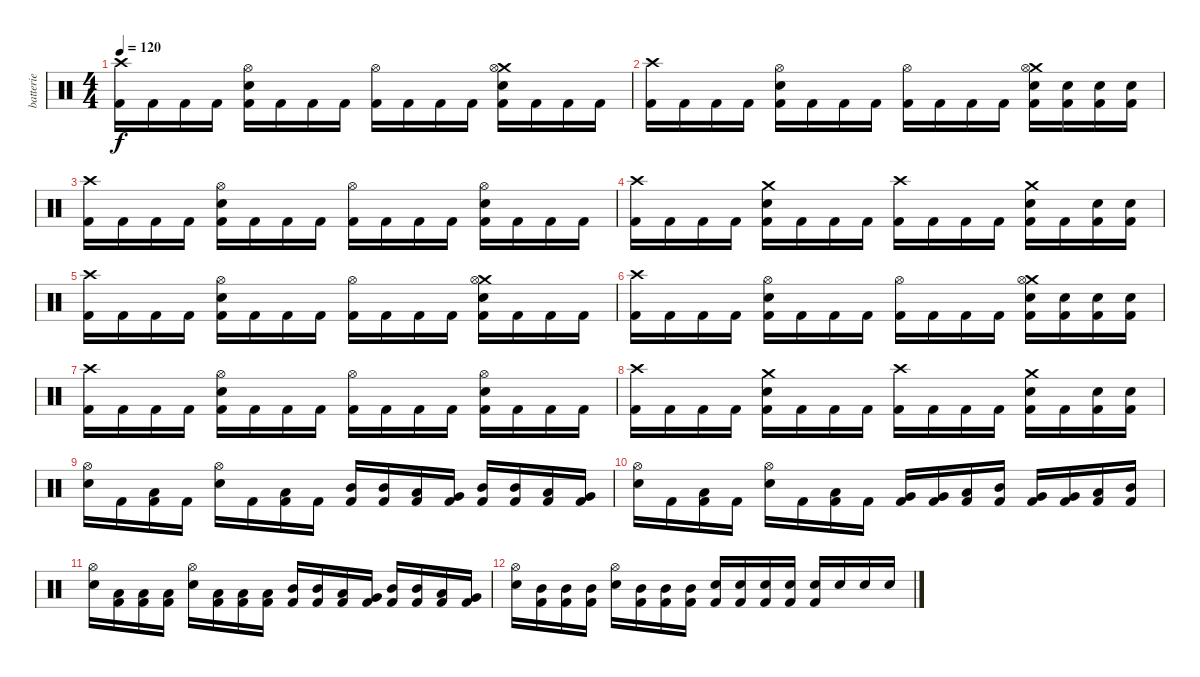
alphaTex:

\track ("batterie" "batterie") {instrument percussion}
\staff {score}
\articulation defaults
\ts (4 4)
\tempo 120
\clef neutral
\ks c
("Crash high (hit)" "Kick (hit) 2").16{dy f} "Kick (hit) 2".16 "Kick (hit) 2".16 "Kick (hit) 2".16 ("Snare (hit) 2" "Kick (hit) 2" "Hi-Hat (open)").16 "Kick (hit) 2".16 "Kick (hit) 2".16 "Kick (hit) 2".16 ("Kick (hit) 2" "Hi-Hat (open)").16 "Kick (hit) 2".16 "Kick (hit) 2".16 "Kick (hit) 2".16 ("Crash medium (hit)" "Snare (hit) 2" "Kick (hit) 2" "Hi-Hat (open)").16 "Kick (hit) 2".16 "Kick (hit) 2".16 "Kick (hit) 2".16 |
("Crash high (hit)" "Kick (hit) 2").16 "Kick (hit) 2".16 "Kick (hit) 2".16 "Kick (hit) 2".16 ("Snare (hit) 2" "Kick (hit) 2" "Hi-Hat (open)").16 "Kick (hit) 2".16 "Kick (hit) 2".16 "Kick (hit) 2".16 ("Kick (hit) 2" "Hi-Hat (open)").16 "Kick (hit) 2".16 "Kick (hit) 2".16 "Kick (hit) 2".16 ("Crash medium (hit)" "Snare (hit) 2" "Kick (hit) 2" "Hi-Hat (open)").16 ("Snare (hit) 2" "Kick (hit) 2").16 ("Snare (hit) 2" "Kick (hit) 2").16 ("Snare (hit) 2" "Kick (hit) 2").16 |
("Crash high (hit)" "Kick (hit) 2").16 "Kick (hit) 2".16 "Kick (hit) 2".16 "Kick (hit) 2".16 ("Snare (hit) 2" "Kick (hit) 2" "Hi-Hat (open)").16 "Kick (hit) 2".16 "Kick (hit) 2".16 "Kick (hit) 2".16 ("Kick (hit) 2" "Hi-Hat (open)").16 "Kick (hit) 2".16 "Kick (hit) 2".16 "Kick (hit) 2".16 ("Snare (hit) 2" "Kick (hit) 2" "Hi-Hat (open)").16 "Kick (hit) 2".16 "Kick (hit) 2".16 "Kick (hit) 2".16 |
("Crash high (hit)" "Kick (hit) 2").16 "Kick (hit) 2".16 "Kick (hit) 2".16 "Kick (hit) 2".16 ("Crash medium (hit)" "Snare (hit) 2" "Kick (hit) 2").16 "Kick (hit) 2".16 "Kick (hit) 2".16 "Kick (hit) 2".16 ("Crash high (hit)" "Kick (hit) 2").16 "Kick (hit) 2".16 "Kick (hit) 2".16 "Kick (hit) 2".16 ("Crash medium (hit)" "Snare (hit) 2" "Kick (hit) 2").16 "Kick (hit) 2".16 ("Snare (hit) 2" "Kick (hit) 2").16 ("Snare (hit) 2" "Kick (hit) 2").16 |
("Crash high (hit)" "Kick (hit) 2").16 "Kick (hit) 2".16 "Kick (hit) 2".16 "Kick (hit) 2".16 ("Snare (hit) 2" "Kick (hit) 2" "Hi-Hat (open)").16 "Kick (hit) 2".16 "Kick (hit) 2".16 "Kick (hit) 2".16 ("Kick (hit) 2" "Hi-Hat (open)").16 "Kick (hit) 2".16 "Kick (hit) 2".16 "Kick (hit) 2".16 ("Crash medium (hit)" "Snare (hit) 2" "Kick (hit) 2" "Hi-Hat (open)").16 "Kick (hit) 2".16 "Kick (hit) 2".16 "Kick (hit) 2".16 |
("Crash high (hit)" "Kick (hit) 2").16 "Kick (hit) 2".16 "Kick (hit) 2".16 "Kick (hit) 2".16 ("Snare (hit) 2" "Kick (hit) 2" "Hi-Hat (open)").16 "Kick (hit) 2".16 "Kick (hit) 2".16 "Kick (hit) 2".16 ("Kick (hit) 2" "Hi-Hat (open)").16 "Kick (hit) 2".16 "Kick (hit) 2".16 "Kick (hit) 2".16 ("Crash medium (hit)" "Snare (hit) 2" "Kick (hit) 2" "Hi-Hat (open)").16 ("Snare (hit) 2" "Kick (hit) 2").16 ("Snare (hit) 2" "Kick (hit) 2").16 ("Snare (hit) 2" "Kick (hit) 2").16 |
("Crash high (hit)" "Kick (hit) 2").16 "Kick (hit) 2".16 "Kick (hit) 2".16 "Kick (hit) 2".16 ("Snare (hit) 2" "Kick (hit) 2" "Hi-Hat (open)").16 "Kick (hit) 2".16 "Kick (hit) 2".16 "Kick (hit) 2".16 ("Kick (hit) 2" "Hi-Hat (open)").16 "Kick (hit) 2".16 "Kick (hit) 2".16 "Kick (hit) 2".16 ("Snare (hit) 2" "Kick (hit) 2" "Hi-Hat (open)").16 "Kick (hit) 2".16 "Kick (hit) 2".16 "Kick (hit) 2".16 |
("Crash high (hit)" "Kick (hit) 2").16 "Kick (hit) 2".16 "Kick (hit) 2".16 "Kick (hit) 2".16 ("Crash medium (hit)" "Snare (hit) 2" "Kick (hit) 2").16 "Kick (hit) 2".16 "Kick (hit) 2".16 "Kick (hit) 2".16 ("Crash high (hit)" "Kick (hit) 2").16 "Kick (hit) 2".16 "Kick (hit) 2".16 "Kick (hit) 2".16 ("Crash medium (hit)" "Snare (hit) 2" "Kick (hit) 2").16 "Kick (hit) 2".16 ("Snare (hit) 2" "Kick (hit) 2").16 ("Snare (hit) 2" "Kick (hit) 2").16 |
("Snare (hit) 2" "Hi-Hat (open)").16 "Kick (hit) 2".16 ("Low Tom (hit)" "Kick (hit) 2").16 "Kick (hit) 2".16 ("Snare (hit) 2" "Hi-Hat (open)").16 "Kick (hit) 2".16 ("Low Tom (hit)" "Kick (hit) 2").16 "Kick (hit) 2".16 ("Mid Tom (hit)" "Kick (hit) 2").16 ("Mid Tom (hit)" "Kick (hit) 2").16 ("Low Tom (hit)" "Kick (hit) 2").16 ("Very Low Tom (hit)" "Kick (hit) 2").16 ("Mid Tom (hit)" "Kick (hit) 2").16 ("Mid Tom (hit)" "Kick (hit) 2").16 ("Low Tom (hit)" "Kick (hit) 2").16 ("Very Low Tom (hit)" "Kick (hit) 2").16 |
("Snare (hit) 2" "Hi-Hat (open)").16 "Kick (hit) 2".16 ("Low Tom (hit)" "Kick (hit) 2").16 "Kick (hit) 2".16 ("Snare (hit) 2" "Hi-Hat (open)").16 "Kick (hit) 2".16 ("Low Tom (hit)" "Kick (hit) 2").16 "Kick (hit) 2".16 ("Very Low Tom (hit)" "Kick (hit) 2").16 ("Very Low Tom (hit)" "Kick (hit) 2").16 ("Low Tom (hit)" "Kick (hit) 2").16 ("Mid Tom (hit)" "Kick (hit) 2").16 ("Very Low Tom (hit)" "Kick (hit) 2").16 ("Very Low Tom (hit)" "Kick (hit) 2").16 ("Low Tom (hit)" "Kick (hit) 2").16 ("Mid Tom (hit)" "Kick (hit) 2").16 |
("Snare (hit) 2" "Hi-Hat (open)").16 ("Low Tom (hit)" "Kick (hit) 2").16 ("Low Tom (hit)" "Kick (hit) 2").16 ("Low Tom (hit)" "Kick (hit) 2").16 ("Snare (hit) 2" "Hi-Hat (open)").16 ("Low Tom (hit)" "Kick (hit) 2").16 ("Low Tom (hit)" "Kick (hit) 2").16 ("Low Tom (hit)" "Kick (hit) 2").16 ("Mid Tom (hit)" "Kick (hit) 2").16 ("Mid Tom (hit)" "Kick (hit) 2").16 ("Low Tom (hit)" "Kick (hit) 2").16 ("Very Low Tom (hit)" "Kick (hit) 2").16 ("Mid Tom (hit)" "Kick (hit) 2").16 ("Mid Tom (hit)" "Kick (hit) 2").16 ("Low Tom (hit)" "Kick (hit) 2").16 ("Very Low Tom (hit)" "Kick (hit) 2").16 |
("Snare (hit) 2" "Hi-Hat (open)").16 ("Mid Tom (hit)" "Kick (hit) 2").16 ("Mid Tom (hit)" "Kick (hit) 2").16 ("Mid Tom (hit)" "Kick (hit) 2").16 ("Snare (hit) 2" "Hi-Hat (open)").16 ("Mid Tom (hit)" "Kick (hit) 2").16 ("Mid Tom (hit)" "Kick (hit) 2").16 ("Mid Tom (hit)" "Kick (hit) 2").16 ("Snare (hit) 2" "Kick (hit) 2").16 ("Snare (hit) 2" "Kick (hit) 2").16 ("Snare (hit) 2" "Kick (hit) 2").16 ("Snare (hit) 2" "Kick (hit) 2").16 ("Snare (hit) 2" "Kick (hit) 2").16 "Snare (hit) 2".16 "Snare (hit) 2".16 "Snare (hit) 2".16
